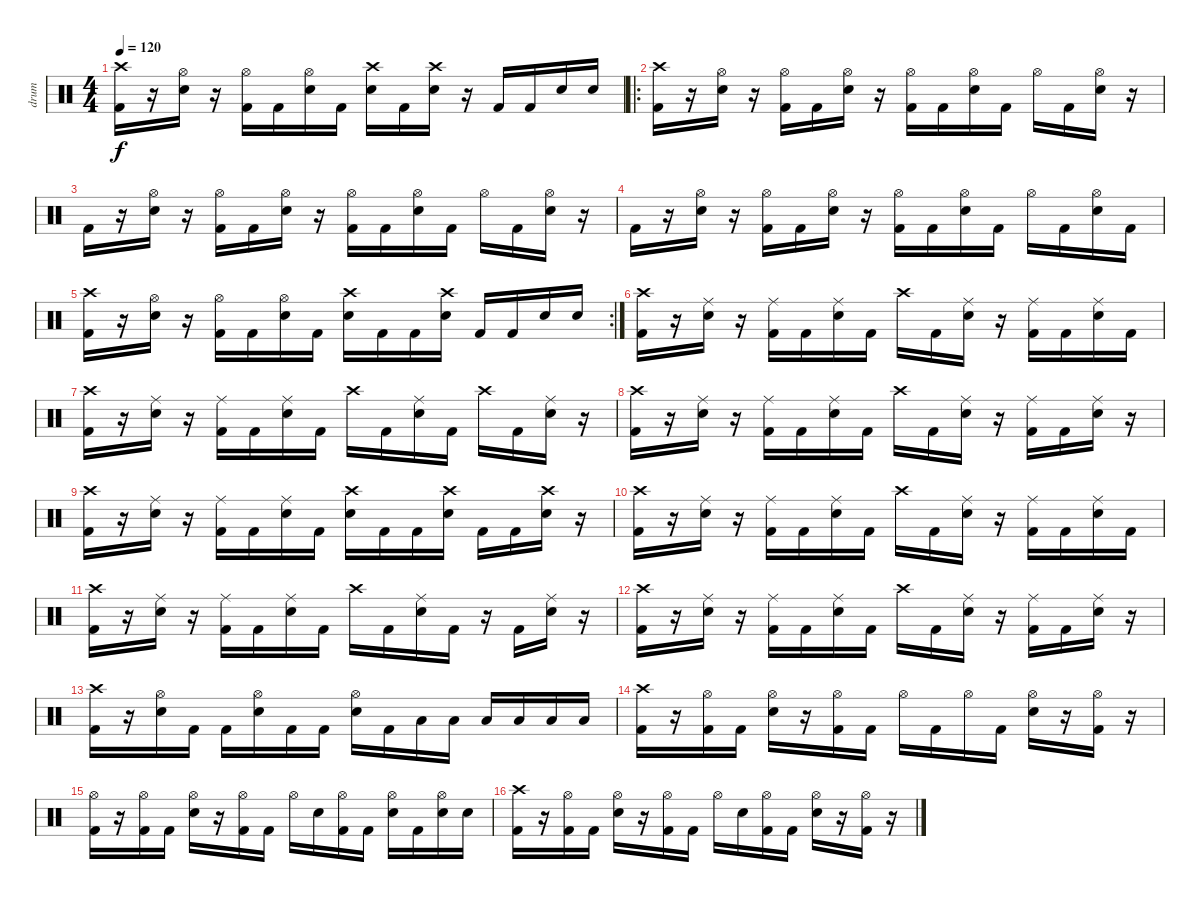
\track ("drum" "drum") {instrument percussion}
\staff {score}
\articulation defaults
\ts (4 4)
\tempo 120
\clef neutral
\ks c
("Crash high (hit)" "Kick (hit) 2").16{dy f} r.16 ("Hi-Hat (open)" "Snare (hit) 2").16 r.16 ("Hi-Hat (open)" "Kick (hit) 2").16 "Kick (hit) 2".16 ("Hi-Hat (open)" "Snare (hit) 2").16 "Kick (hit) 2".16 ("Crash high (hit)" "Snare (hit) 2").16 "Kick (hit) 2".16 ("Crash high (hit)" "Snare (hit) 2").16 r.16 "Kick (hit) 2".16 "Kick (hit) 2".16 "Snare (hit) 2".16 "Snare (hit) 2".16 |
\ro
("Crash high (hit)" "Kick (hit) 2").16 r.16 ("Hi-Hat (open)" "Snare (hit) 2").16 r.16 ("Hi-Hat (open)" "Kick (hit) 2").16 "Kick (hit) 2".16 ("Hi-Hat (open)" "Snare (hit) 2").16 r.16 ("Hi-Hat (open)" "Kick (hit) 2").16 "Kick (hit) 2".16 ("Hi-Hat (open)" "Snare (hit) 2").16 "Kick (hit) 2".16 "Hi-Hat (open)".16 "Kick (hit) 2".16 ("Hi-Hat (open)" "Snare (hit) 2").16 r.16 |
"Kick (hit) 2".16 r.16 ("Hi-Hat (open)" "Snare (hit) 2").16 r.16 ("Hi-Hat (open)" "Kick (hit) 2").16 "Kick (hit) 2".16 ("Hi-Hat (open)" "Snare (hit) 2").16 r.16 ("Hi-Hat (open)" "Kick (hit) 2").16 "Kick (hit) 2".16 ("Hi-Hat (open)" "Snare (hit) 2").16 "Kick (hit) 2".16 "Hi-Hat (open)".16 "Kick (hit) 2".16 ("Hi-Hat (open)" "Snare (hit) 2").16 r.16 |
"Kick (hit) 2".16 r.16 ("Hi-Hat (open)" "Snare (hit) 2").16 r.16 ("Hi-Hat (open)" "Kick (hit) 2").16 "Kick (hit) 2".16 ("Hi-Hat (open)" "Snare (hit) 2").16 r.16 ("Hi-Hat (open)" "Kick (hit) 2").16 "Kick (hit) 2".16 ("Hi-Hat (open)" "Snare (hit) 2").16 "Kick (hit) 2".16 "Hi-Hat (open)".16 "Kick (hit) 2".16 ("Hi-Hat (open)" "Snare (hit) 2").16 "Kick (hit) 2".16 |
\rc 2
("Crash high (hit)" "Kick (hit) 2").16 r.16 ("Hi-Hat (open)" "Snare (hit) 2").16 r.16 ("Hi-Hat (open)" "Kick (hit) 2").16 "Kick (hit) 2".16 ("Hi-Hat (open)" "Snare (hit) 2").16 "Kick (hit) 2".16 ("Crash high (hit)" "Snare (hit) 2").16 "Kick (hit) 2".16 "Kick (hit) 2".16 ("Crash high (hit)" "Snare (hit) 2").16 "Kick (hit) 2".16 "Kick (hit) 2".16 "Snare (hit) 2".16 "Snare (hit) 2".16 |
("Crash high (hit)" "Kick (hit) 2").16 r.16 ("Ride (middle)" "Snare (hit) 2").16 r.16 ("Ride (middle)" "Kick (hit) 2").16 "Kick (hit) 2".16 ("Ride (middle)" "Snare (hit) 2").16 "Kick (hit) 2".16 "Crash high (hit)".16 "Kick (hit) 2".16 ("Ride (middle)" "Snare (hit) 2").16 r.16 ("Ride (middle)" "Kick (hit) 2").16 "Kick (hit) 2".16 ("Ride (middle)" "Snare (hit) 2").16 "Kick (hit) 2".16 |
("Crash high (hit)" "Kick (hit) 2").16 r.16 ("Ride (middle)" "Snare (hit) 2").16 r.16 ("Ride (middle)" "Kick (hit) 2").16 "Kick (hit) 2".16 ("Ride (middle)" "Snare (hit) 2").16 "Kick (hit) 2".16 "Crash high (hit)".16 "Kick (hit) 2".16 ("Ride (middle)" "Snare (hit) 2").16 "Kick (hit) 2".16 "Crash high (hit)".16 "Kick (hit) 2".16 ("Ride (middle)" "Snare (hit) 2").16 r.16 |
("Crash high (hit)" "Kick (hit) 2").16 r.16 ("Ride (middle)" "Snare (hit) 2").16 r.16 ("Ride (middle)" "Kick (hit) 2").16 "Kick (hit) 2".16 ("Ride (middle)" "Snare (hit) 2").16 "Kick (hit) 2".16 "Crash high (hit)".16 "Kick (hit) 2".16 ("Ride (middle)" "Snare (hit) 2").16 r.16 ("Ride (middle)" "Kick (hit) 2").16 "Kick (hit) 2".16 ("Ride (middle)" "Snare (hit) 2").16 r.16 |
("Crash high (hit)" "Kick (hit) 2").16 r.16 ("Ride (middle)" "Snare (hit) 2").16 r.16 ("Ride (middle)" "Kick (hit) 2").16 "Kick (hit) 2".16 ("Ride (middle)" "Snare (hit) 2").16 "Kick (hit) 2".16 ("Crash high (hit)" "Snare (hit) 2").16 "Kick (hit) 2".16 "Kick (hit) 2".16 ("Crash high (hit)" "Snare (hit) 2").16 "Kick (hit) 2".16 "Kick (hit) 2".16 ("Crash high (hit)" "Snare (hit) 2").16 r.16 |
("Crash high (hit)" "Kick (hit) 2").16 r.16 ("Ride (middle)" "Snare (hit) 2").16 r.16 ("Ride (middle)" "Kick (hit) 2").16 "Kick (hit) 2".16 ("Ride (middle)" "Snare (hit) 2").16 "Kick (hit) 2".16 "Crash high (hit)".16 "Kick (hit) 2".16 ("Ride (middle)" "Snare (hit) 2").16 r.16 ("Ride (middle)" "Kick (hit) 2").16 "Kick (hit) 2".16 ("Ride (middle)" "Snare (hit) 2").16 "Kick (hit) 2".16 |
("Crash high (hit)" "Kick (hit) 2").16 r.16 ("Ride (middle)" "Snare (hit) 2").16 r.16 ("Ride (middle)" "Kick (hit) 2").16 "Kick (hit) 2".16 ("Ride (middle)" "Snare (hit) 2").16 "Kick (hit) 2".16 "Crash high (hit)".16 "Kick (hit) 2".16 ("Ride (middle)" "Snare (hit) 2").16 "Kick (hit) 2".16 r.16 "Kick (hit) 2".16 ("Ride (middle)" "Snare (hit) 2").16 r.16 |
("Crash high (hit)" "Kick (hit) 2").16 r.16 ("Ride (middle)" "Snare (hit) 2").16 r.16 ("Ride (middle)" "Kick (hit) 2").16 "Kick (hit) 2".16 ("Ride (middle)" "Snare (hit) 2").16 "Kick (hit) 2".16 "Crash high (hit)".16 "Kick (hit) 2".16 ("Ride (middle)" "Snare (hit) 2").16 r.16 ("Ride (middle)" "Kick (hit) 2").16 "Kick (hit) 2".16 ("Ride (middle)" "Snare (hit) 2").16 r.16 |
("Crash high (hit)" "Kick (hit) 2").16 r.16 ("Hi-Hat (open)" "Snare (hit) 2").16 "Kick (hit) 2".16 "Kick (hit) 2".16 ("Hi-Hat (open)" "Snare (hit) 2").16 "Kick (hit) 2".16 "Kick (hit) 2".16 ("Hi-Hat (open)" "Snare (hit) 2").16 "Kick (hit) 2".16 "Low Floor Tom (hit)".16 "Low Floor Tom (hit)".16 "Low Floor Tom (hit)".16 "Low Floor Tom (hit)".16 "Low Floor Tom (hit)".16 "Low Floor Tom (hit)".16 |
("Crash high (hit)" "Kick (hit) 2").16 r.16 ("Hi-Hat (open)" "Kick (hit) 2").16 "Kick (hit) 2".16 ("Hi-Hat (open)" "Snare (hit) 2").16 r.16 ("Hi-Hat (open)" "Kick (hit) 2").16 "Kick (hit) 2".16 "Hi-Hat (open)".16 "Kick (hit) 2".16 "Hi-Hat (open)".16 "Kick (hit) 2".16 ("Hi-Hat (open)" "Snare (hit) 2").16 r.16 ("Hi-Hat (open)" "Kick (hit) 2").16 r.16 |
("Hi-Hat (open)" "Kick (hit) 2").16 r.16 ("Hi-Hat (open)" "Kick (hit) 2").16 "Kick (hit) 2".16 ("Hi-Hat (open)" "Snare (hit) 2").16 r.16 ("Hi-Hat (open)" "Kick (hit) 2").16 "Kick (hit) 2".16 "Hi-Hat (open)".16 "Snare (hit) 2".16 ("Hi-Hat (open)" "Kick (hit) 2").16 "Kick (hit) 2".16 ("Hi-Hat (open)" "Snare (hit) 2").16 "Kick (hit) 2".16 ("Hi-Hat (open)" "Snare (hit) 2").16 "Snare (hit) 2".16 |
("Crash high (hit)" "Kick (hit) 2").16 r.16 ("Hi-Hat (open)" "Kick (hit) 2").16 "Kick (hit) 2".16 ("Hi-Hat (open)" "Snare (hit) 2").16 r.16 ("Hi-Hat (open)" "Kick (hit) 2").16 "Kick (hit) 2".16 "Hi-Hat (open)".16 "Snare (hit) 2".16 ("Hi-Hat (open)" "Kick (hit) 2").16 "Kick (hit) 2".16 ("Hi-Hat (open)" "Snare (hit) 2").16 r.16 ("Hi-Hat (open)" "Kick (hit) 2").16 r.16
